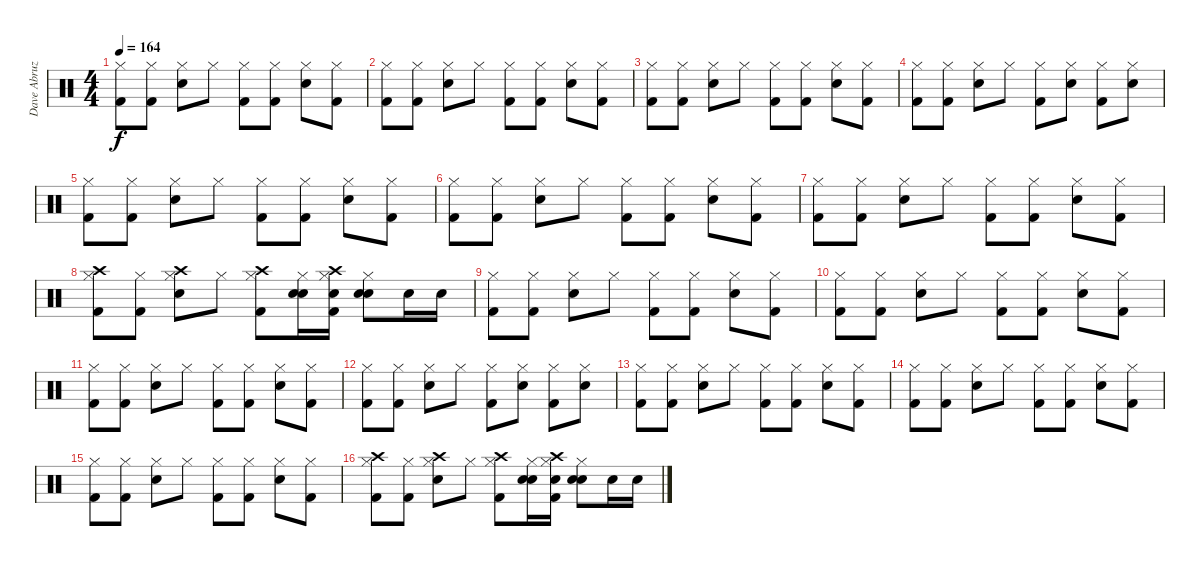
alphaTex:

\track ("Dave Abruzzese" "Dave Abruz") {instrument percussion}
\staff {score}
\articulation defaults
\ts (4 4)
\tempo 164
\clef neutral
\ks c
("Kick (hit) 2" "Hi-Hat (closed)").8{dy f} ("Kick (hit) 2" "Hi-Hat (closed)").8 ("Snare (hit) 2" "Hi-Hat (closed)").8 "Hi-Hat (closed)".8 ("Kick (hit) 2" "Hi-Hat (closed)").8 ("Kick (hit) 2" "Hi-Hat (closed)").8 ("Snare (hit) 2" "Hi-Hat (closed)").8 ("Kick (hit) 2" "Hi-Hat (closed)").8 |
("Kick (hit) 2" "Hi-Hat (closed)").8 ("Kick (hit) 2" "Hi-Hat (closed)").8 ("Snare (hit) 2" "Hi-Hat (closed)").8 "Hi-Hat (closed)".8 ("Kick (hit) 2" "Hi-Hat (closed)").8 ("Kick (hit) 2" "Hi-Hat (closed)").8 ("Snare (hit) 2" "Hi-Hat (closed)").8 ("Kick (hit) 2" "Hi-Hat (closed)").8 |
("Kick (hit) 2" "Hi-Hat (closed)").8 ("Kick (hit) 2" "Hi-Hat (closed)").8 ("Snare (hit) 2" "Hi-Hat (closed)").8 "Hi-Hat (closed)".8 ("Kick (hit) 2" "Hi-Hat (closed)").8 ("Kick (hit) 2" "Hi-Hat (closed)").8 ("Snare (hit) 2" "Hi-Hat (closed)").8 ("Kick (hit) 2" "Hi-Hat (closed)").8 |
("Kick (hit) 2" "Hi-Hat (closed)").8 ("Kick (hit) 2" "Hi-Hat (closed)").8 ("Snare (hit) 2" "Hi-Hat (closed)").8 "Hi-Hat (closed)".8 ("Kick (hit) 2" "Hi-Hat (closed)").8 ("Snare (hit) 2" "Hi-Hat (closed)").8 ("Kick (hit) 2" "Hi-Hat (closed)").8 ("Snare (hit) 2" "Hi-Hat (closed)").8 |
("Kick (hit) 2" "Hi-Hat (closed)").8 ("Kick (hit) 2" "Hi-Hat (closed)").8 ("Snare (hit) 2" "Hi-Hat (closed)").8 "Hi-Hat (closed)".8 ("Kick (hit) 2" "Hi-Hat (closed)").8 ("Kick (hit) 2" "Hi-Hat (closed)").8 ("Snare (hit) 2" "Hi-Hat (closed)").8 ("Kick (hit) 2" "Hi-Hat (closed)").8 |
("Kick (hit) 2" "Hi-Hat (closed)").8 ("Kick (hit) 2" "Hi-Hat (closed)").8 ("Snare (hit) 2" "Hi-Hat (closed)").8 "Hi-Hat (closed)".8 ("Kick (hit) 2" "Hi-Hat (closed)").8 ("Kick (hit) 2" "Hi-Hat (closed)").8 ("Snare (hit) 2" "Hi-Hat (closed)").8 ("Kick (hit) 2" "Hi-Hat (closed)").8 |
("Kick (hit) 2" "Hi-Hat (closed)").8 ("Kick (hit) 2" "Hi-Hat (closed)").8 ("Snare (hit) 2" "Hi-Hat (closed)").8 "Hi-Hat (closed)".8 ("Kick (hit) 2" "Hi-Hat (closed)").8 ("Kick (hit) 2" "Hi-Hat (closed)").8 ("Snare (hit) 2" "Hi-Hat (closed)").8 ("Kick (hit) 2" "Hi-Hat (closed)").8 |
("Crash high (hit)" "Kick (hit) 2" "Hi-Hat (closed)").8 ("Kick (hit) 2" "Hi-Hat (closed)").8 ("Crash high (hit)" "Snare (hit) 2" "Hi-Hat (closed)").8 "Hi-Hat (closed)".8 ("Crash high (hit)" "Kick (hit) 2" "Hi-Hat (closed)").8 ("Snare (hit) 2" "Snare (hit) 2" "Hi-Hat (closed)").16 ("Snare (hit) 2" "Crash high (hit)" "Kick (hit) 2" "Hi-Hat (closed)").16 ("Snare (hit) 2" "Snare (hit) 2" "Hi-Hat (closed)").8 "Snare (hit) 2".16 "Snare (hit) 2".16 |
("Kick (hit) 2" "Hi-Hat (closed)").8 ("Kick (hit) 2" "Hi-Hat (closed)").8 ("Snare (hit) 2" "Hi-Hat (closed)").8 "Hi-Hat (closed)".8 ("Kick (hit) 2" "Hi-Hat (closed)").8 ("Kick (hit) 2" "Hi-Hat (closed)").8 ("Snare (hit) 2" "Hi-Hat (closed)").8 ("Kick (hit) 2" "Hi-Hat (closed)").8 |
("Kick (hit) 2" "Hi-Hat (closed)").8 ("Kick (hit) 2" "Hi-Hat (closed)").8 ("Snare (hit) 2" "Hi-Hat (closed)").8 "Hi-Hat (closed)".8 ("Kick (hit) 2" "Hi-Hat (closed)").8 ("Kick (hit) 2" "Hi-Hat (closed)").8 ("Snare (hit) 2" "Hi-Hat (closed)").8 ("Kick (hit) 2" "Hi-Hat (closed)").8 |
("Kick (hit) 2" "Hi-Hat (closed)").8 ("Kick (hit) 2" "Hi-Hat (closed)").8 ("Snare (hit) 2" "Hi-Hat (closed)").8 "Hi-Hat (closed)".8 ("Kick (hit) 2" "Hi-Hat (closed)").8 ("Kick (hit) 2" "Hi-Hat (closed)").8 ("Snare (hit) 2" "Hi-Hat (closed)").8 ("Kick (hit) 2" "Hi-Hat (closed)").8 |
("Kick (hit) 2" "Hi-Hat (closed)").8 ("Kick (hit) 2" "Hi-Hat (closed)").8 ("Snare (hit) 2" "Hi-Hat (closed)").8 "Hi-Hat (closed)".8 ("Kick (hit) 2" "Hi-Hat (closed)").8 ("Snare (hit) 2" "Hi-Hat (closed)").8 ("Kick (hit) 2" "Hi-Hat (closed)").8 ("Snare (hit) 2" "Hi-Hat (closed)").8 |
("Kick (hit) 2" "Hi-Hat (closed)").8 ("Kick (hit) 2" "Hi-Hat (closed)").8 ("Snare (hit) 2" "Hi-Hat (closed)").8 "Hi-Hat (closed)".8 ("Kick (hit) 2" "Hi-Hat (closed)").8 ("Kick (hit) 2" "Hi-Hat (closed)").8 ("Snare (hit) 2" "Hi-Hat (closed)").8 ("Kick (hit) 2" "Hi-Hat (closed)").8 |
("Kick (hit) 2" "Hi-Hat (closed)").8 ("Kick (hit) 2" "Hi-Hat (closed)").8 ("Snare (hit) 2" "Hi-Hat (closed)").8 "Hi-Hat (closed)".8 ("Kick (hit) 2" "Hi-Hat (closed)").8 ("Kick (hit) 2" "Hi-Hat (closed)").8 ("Snare (hit) 2" "Hi-Hat (closed)").8 ("Kick (hit) 2" "Hi-Hat (closed)").8 |
("Kick (hit) 2" "Hi-Hat (closed)").8 ("Kick (hit) 2" "Hi-Hat (closed)").8 ("Snare (hit) 2" "Hi-Hat (closed)").8 "Hi-Hat (closed)".8 ("Kick (hit) 2" "Hi-Hat (closed)").8 ("Kick (hit) 2" "Hi-Hat (closed)").8 ("Snare (hit) 2" "Hi-Hat (closed)").8 ("Kick (hit) 2" "Hi-Hat (closed)").8 |
("Crash high (hit)" "Kick (hit) 2" "Hi-Hat (closed)").8 ("Kick (hit) 2" "Hi-Hat (closed)").8 ("Crash high (hit)" "Snare (hit) 2" "Hi-Hat (closed)").8 "Hi-Hat (closed)".8 ("Crash high (hit)" "Kick (hit) 2" "Hi-Hat (closed)").8 ("Snare (hit) 2" "Snare (hit) 2" "Hi-Hat (closed)").16 ("Snare (hit) 2" "Crash high (hit)" "Kick (hit) 2" "Hi-Hat (closed)").16 ("Snare (hit) 2" "Snare (hit) 2" "Hi-Hat (closed)").8 "Snare (hit) 2".16 "Snare (hit) 2".16
